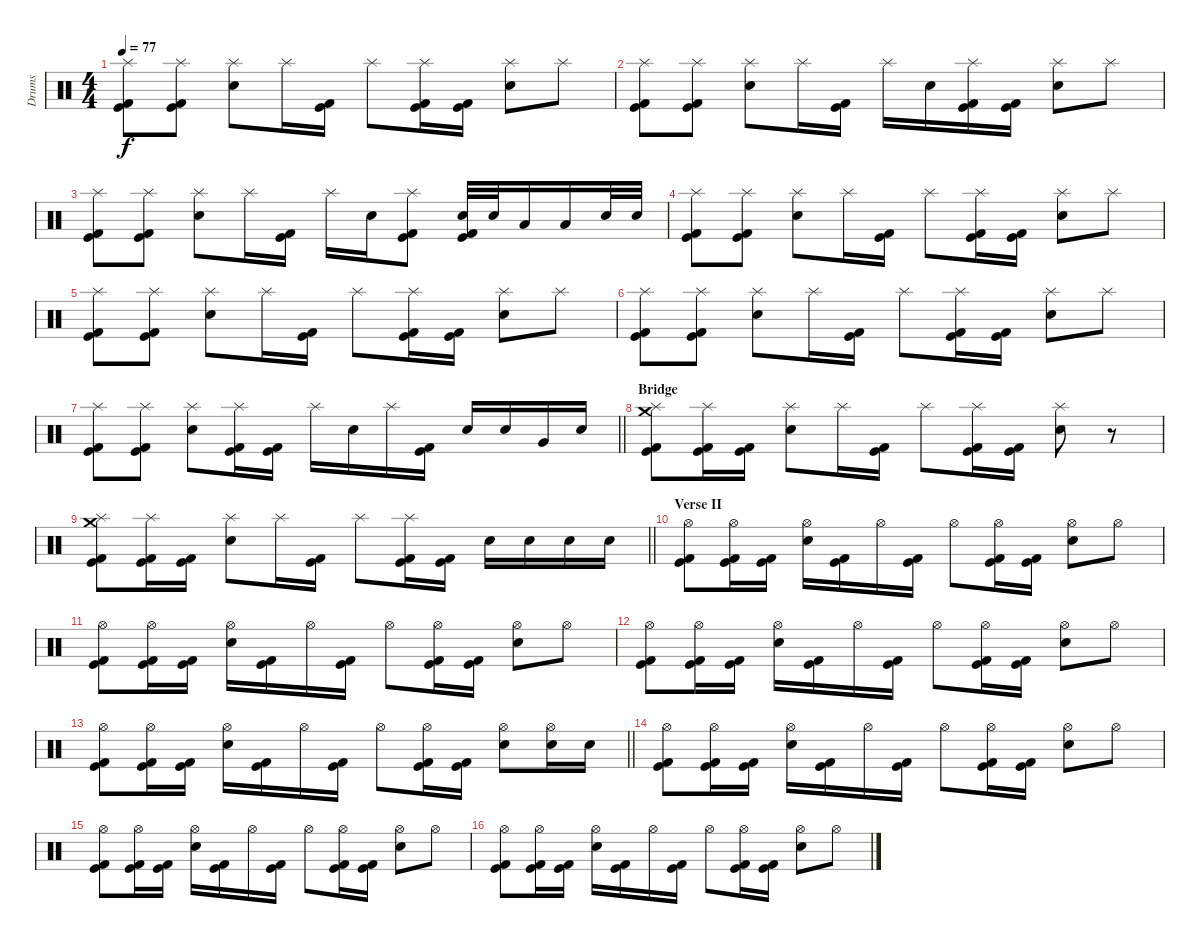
\track ("Drums" "Drums") {instrument percussion}
\staff {score}
\articulation defaults
\ts (4 4)
\tempo 77
\clef neutral
\ks c
("Splash (hit)" "Kick (hit)" "Kick (hit) 2").8{dy f} ("Splash (hit)" "Kick (hit)" "Kick (hit) 2").8 ("Splash (hit)" "Snare (hit) 2").8 "Splash (hit)".16 ("Kick (hit)" "Kick (hit) 2").16 "Splash (hit)".8 ("Splash (hit)" "Kick (hit)" "Kick (hit) 2").16 ("Kick (hit)" "Kick (hit) 2").16 ("Splash (hit)" "Snare (hit) 2").8 "Splash (hit)".8 |
("Splash (hit)" "Kick (hit)" "Kick (hit) 2").8 ("Splash (hit)" "Kick (hit)" "Kick (hit) 2").8 ("Splash (hit)" "Snare (hit) 2").8 "Splash (hit)".16 ("Kick (hit)" "Kick (hit) 2").16 "Splash (hit)".16 "Snare (hit) 2".16 ("Splash (hit)" "Kick (hit)" "Kick (hit) 2").16 ("Kick (hit)" "Kick (hit) 2").16 ("Splash (hit)" "Snare (hit) 2").8 "Splash (hit)".8 |
("Splash (hit)" "Kick (hit)" "Kick (hit) 2").8 ("Splash (hit)" "Kick (hit)" "Kick (hit) 2").8 ("Splash (hit)" "Snare (hit) 2").8 "Splash (hit)".16 ("Kick (hit)" "Kick (hit) 2").16 "Splash (hit)".16 "Snare (hit) 2".16 ("Splash (hit)" "Kick (hit)" "Kick (hit) 2").8 ("Snare (hit) 2" "Kick (hit)" "Kick (hit) 2").32 "Snare (hit) 2".32 "Low Tom (hit)".16 "Low Tom (hit)".16 "Snare (hit) 2".32 "Snare (hit) 2".32 |
("Splash (hit)" "Kick (hit)" "Kick (hit) 2").8 ("Splash (hit)" "Kick (hit)" "Kick (hit) 2").8 ("Splash (hit)" "Snare (hit) 2").8 "Splash (hit)".16 ("Kick (hit)" "Kick (hit) 2").16 "Splash (hit)".8 ("Splash (hit)" "Kick (hit)" "Kick (hit) 2").16 ("Kick (hit)" "Kick (hit) 2").16 ("Splash (hit)" "Snare (hit) 2").8 "Splash (hit)".8 |
("Splash (hit)" "Kick (hit)" "Kick (hit) 2").8 ("Splash (hit)" "Kick (hit)" "Kick (hit) 2").8 ("Splash (hit)" "Snare (hit) 2").8 "Splash (hit)".16 ("Kick (hit)" "Kick (hit) 2").16 "Splash (hit)".8 ("Splash (hit)" "Kick (hit)" "Kick (hit) 2").16 ("Kick (hit)" "Kick (hit) 2").16 ("Splash (hit)" "Snare (hit) 2").8 "Splash (hit)".8 |
("Splash (hit)" "Kick (hit)" "Kick (hit) 2").8 ("Splash (hit)" "Kick (hit)" "Kick (hit) 2").8 ("Splash (hit)" "Snare (hit) 2").8 "Splash (hit)".16 ("Kick (hit)" "Kick (hit) 2").16 "Splash (hit)".8 ("Splash (hit)" "Kick (hit)" "Kick (hit) 2").16 ("Kick (hit)" "Kick (hit) 2").16 ("Splash (hit)" "Snare (hit) 2").8 "Splash (hit)".8 |
\barLineRight lightlight
("Splash (hit)" "Kick (hit)" "Kick (hit) 2").8 ("Splash (hit)" "Kick (hit)" "Kick (hit) 2").8 ("Splash (hit)" "Snare (hit) 2").8 ("Splash (hit)" "Kick (hit) 2" "Kick (hit)").16 ("Kick (hit)" "Kick (hit) 2").16 "Splash (hit)".16 "Snare (hit) 2".16 "Splash (hit)".16 ("Kick (hit)" "Kick (hit) 2").16 "Snare (hit) 2".16 "Snare (hit) 2".16 "Very Low Tom (hit)".16 "Snare (hit) 2".16 |
\section ("" "Bridge")
("Splash (hit)" "Crash medium (hit)" "Kick (hit)" "Kick (hit) 2").8 ("Splash (hit)" "Kick (hit)" "Kick (hit) 2").16 ("Kick (hit)" "Kick (hit) 2").16 ("Splash (hit)" "Snare (hit) 2").8 "Splash (hit)".16 ("Kick (hit)" "Kick (hit) 2").16 "Splash (hit)".8 ("Splash (hit)" "Kick (hit)" "Kick (hit) 2").16 ("Kick (hit)" "Kick (hit) 2").16 ("Splash (hit)" "Snare (hit) 2").8 r.8 |
\barLineRight lightlight
("Splash (hit)" "Crash medium (hit)" "Kick (hit)" "Kick (hit) 2").8 ("Splash (hit)" "Kick (hit)" "Kick (hit) 2").16 ("Kick (hit)" "Kick (hit) 2").16 ("Splash (hit)" "Snare (hit) 2").8 "Splash (hit)".16 ("Kick (hit)" "Kick (hit) 2").16 "Splash (hit)".8 ("Splash (hit)" "Kick (hit)" "Kick (hit) 2").16 ("Kick (hit)" "Kick (hit) 2").16 "Snare (hit) 2".16 "Snare (hit) 2".16 "Snare (hit) 2".16 "Snare (hit) 2".16 |
\section ("" "Verse II")
("Hi-Hat (open)" "Kick (hit)" "Kick (hit) 2").8 ("Hi-Hat (open)" "Kick (hit)" "Kick (hit) 2").16 ("Kick (hit)" "Kick (hit) 2").16 ("Hi-Hat (open)" "Snare (hit) 2").16 ("Kick (hit)" "Kick (hit) 2").16 "Hi-Hat (open)".16 ("Kick (hit)" "Kick (hit) 2").16 "Hi-Hat (open)".8 ("Hi-Hat (open)" "Kick (hit)" "Kick (hit) 2").16 ("Kick (hit)" "Kick (hit) 2").16 ("Hi-Hat (open)" "Snare (hit) 2").8 "Hi-Hat (open)".8 |
("Hi-Hat (open)" "Kick (hit)" "Kick (hit) 2").8 ("Hi-Hat (open)" "Kick (hit)" "Kick (hit) 2").16 ("Kick (hit)" "Kick (hit) 2").16 ("Hi-Hat (open)" "Snare (hit) 2").16 ("Kick (hit)" "Kick (hit) 2").16 "Hi-Hat (open)".16 ("Kick (hit)" "Kick (hit) 2").16 "Hi-Hat (open)".8 ("Hi-Hat (open)" "Kick (hit)" "Kick (hit) 2").16 ("Kick (hit)" "Kick (hit) 2").16 ("Hi-Hat (open)" "Snare (hit) 2").8 "Hi-Hat (open)".8 |
("Hi-Hat (open)" "Kick (hit)" "Kick (hit) 2").8 ("Hi-Hat (open)" "Kick (hit)" "Kick (hit) 2").16 ("Kick (hit)" "Kick (hit) 2").16 ("Hi-Hat (open)" "Snare (hit) 2").16 ("Kick (hit)" "Kick (hit) 2").16 "Hi-Hat (open)".16 ("Kick (hit)" "Kick (hit) 2").16 "Hi-Hat (open)".8 ("Hi-Hat (open)" "Kick (hit)" "Kick (hit) 2").16 ("Kick (hit)" "Kick (hit) 2").16 ("Hi-Hat (open)" "Snare (hit) 2").8 "Hi-Hat (open)".8 |
\barLineRight lightlight
("Hi-Hat (open)" "Kick (hit)" "Kick (hit) 2").8 ("Hi-Hat (open)" "Kick (hit)" "Kick (hit) 2").16 ("Kick (hit)" "Kick (hit) 2").16 ("Hi-Hat (open)" "Snare (hit) 2").16 ("Kick (hit)" "Kick (hit) 2").16 "Hi-Hat (open)".16 ("Kick (hit)" "Kick (hit) 2").16 "Hi-Hat (open)".8 ("Hi-Hat (open)" "Kick (hit)" "Kick (hit) 2").16 ("Kick (hit)" "Kick (hit) 2").16 ("Hi-Hat (open)" "Snare (hit) 2").8 ("Hi-Hat (open)" "Snare (hit) 2").16 "Snare (hit) 2".16 |
("Hi-Hat (open)" "Kick (hit)" "Kick (hit) 2").8 ("Hi-Hat (open)" "Kick (hit)" "Kick (hit) 2").16 ("Kick (hit)" "Kick (hit) 2").16 ("Hi-Hat (open)" "Snare (hit) 2").16 ("Kick (hit)" "Kick (hit) 2").16 "Hi-Hat (open)".16 ("Kick (hit)" "Kick (hit) 2").16 "Hi-Hat (open)".8 ("Hi-Hat (open)" "Kick (hit)" "Kick (hit) 2").16 ("Kick (hit)" "Kick (hit) 2").16 ("Hi-Hat (open)" "Snare (hit) 2").8 "Hi-Hat (open)".8 |
("Hi-Hat (open)" "Kick (hit)" "Kick (hit) 2").8 ("Hi-Hat (open)" "Kick (hit)" "Kick (hit) 2").16 ("Kick (hit)" "Kick (hit) 2").16 ("Hi-Hat (open)" "Snare (hit) 2").16 ("Kick (hit)" "Kick (hit) 2").16 "Hi-Hat (open)".16 ("Kick (hit)" "Kick (hit) 2").16 "Hi-Hat (open)".8 ("Hi-Hat (open)" "Kick (hit)" "Kick (hit) 2").16 ("Kick (hit)" "Kick (hit) 2").16 ("Hi-Hat (open)" "Snare (hit) 2").8 "Hi-Hat (open)".8 |
("Hi-Hat (open)" "Kick (hit)" "Kick (hit) 2").8 ("Hi-Hat (open)" "Kick (hit)" "Kick (hit) 2").16 ("Kick (hit)" "Kick (hit) 2").16 ("Hi-Hat (open)" "Snare (hit) 2").16 ("Kick (hit)" "Kick (hit) 2").16 "Hi-Hat (open)".16 ("Kick (hit)" "Kick (hit) 2").16 "Hi-Hat (open)".8 ("Hi-Hat (open)" "Kick (hit)" "Kick (hit) 2").16 ("Kick (hit)" "Kick (hit) 2").16 ("Hi-Hat (open)" "Snare (hit) 2").8 "Hi-Hat (open)".8
